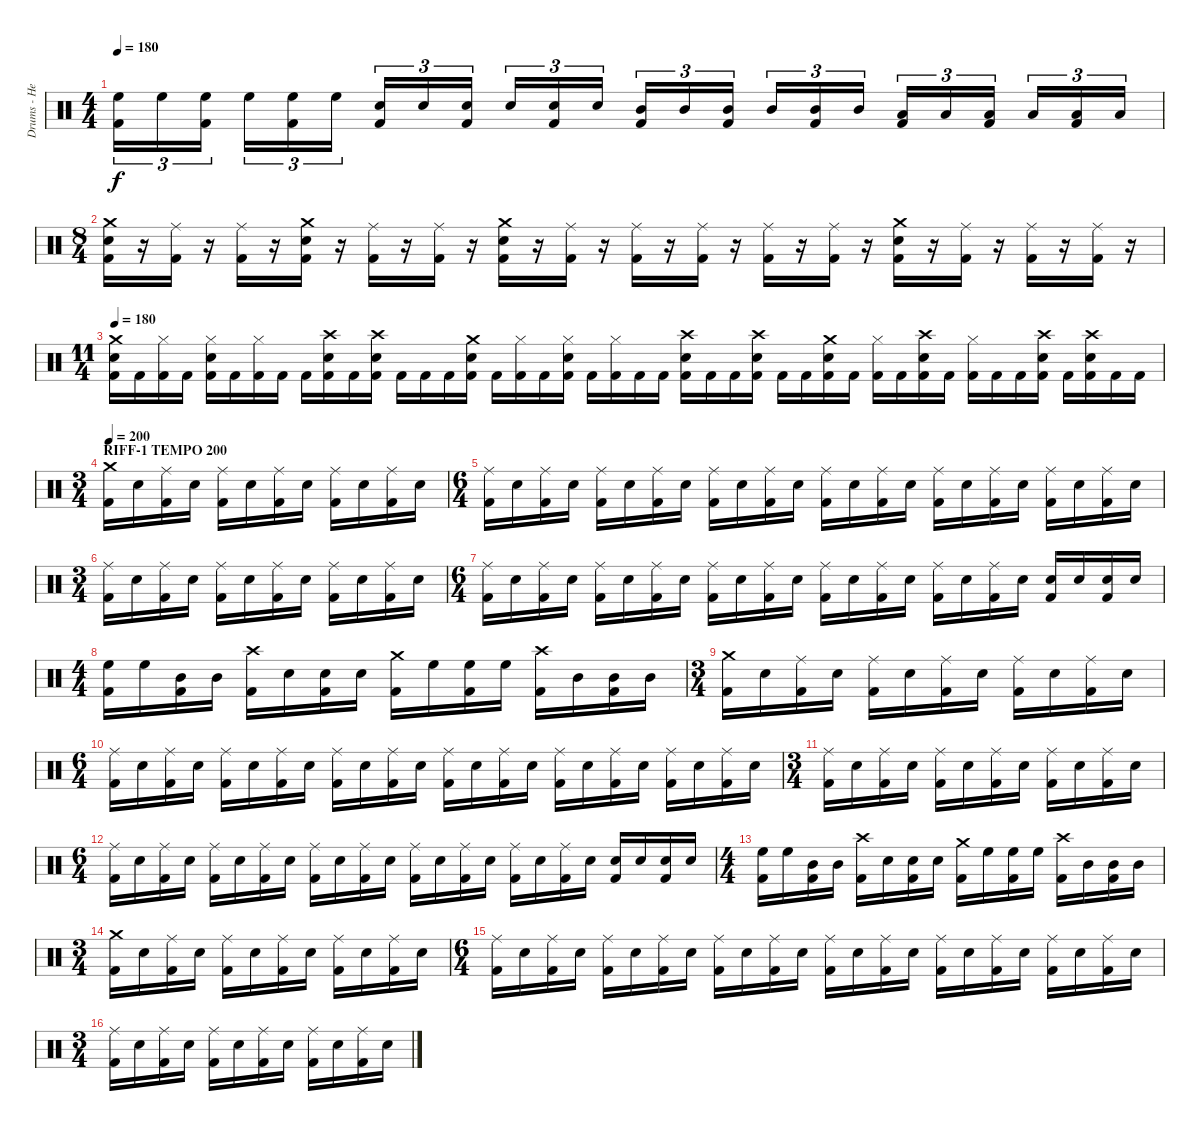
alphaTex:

\track ("Drums - Hellhammer" "Drums - He") {instrument percussion}
\staff {score}
\articulation defaults
\ts (4 4)
\tempo 180
\clef neutral
\ks c
("High Floor Tom (hit)" "Kick (hit) 2").16{tu (3 2) dy f} "High Floor Tom (hit)".16{tu (3 2)} ("High Floor Tom (hit)" "Kick (hit) 2").16{tu (3 2)} "High Floor Tom (hit)".16{tu (3 2)} ("High Floor Tom (hit)" "Kick (hit) 2").16{tu (3 2)} "High Floor Tom (hit)".16{tu (3 2)} ("Electric Snare (hit)" "Kick (hit) 2").16{tu (3 2)} "Electric Snare (hit)".16{tu (3 2)} ("Electric Snare (hit)" "Kick (hit) 2").16{tu (3 2)} "Electric Snare (hit)".16{tu (3 2)} ("Electric Snare (hit)" "Kick (hit) 2").16{tu (3 2)} "Electric Snare (hit)".16{tu (3 2)} ("Mid Tom (hit)" "Kick (hit) 2").16{tu (3 2)} "Mid Tom (hit)".16{tu (3 2)} ("Mid Tom (hit)" "Kick (hit) 2").16{tu (3 2)} "Mid Tom (hit)".16{tu (3 2)} ("Mid Tom (hit)" "Kick (hit) 2").16{tu (3 2)} "Mid Tom (hit)".16{tu (3 2)} ("Low Tom (hit)" "Kick (hit) 2").16{tu (3 2)} "Low Tom (hit)".16{tu (3 2)} ("Low Tom (hit)" "Kick (hit) 2").16{tu (3 2)} "Low Tom (hit)".16{tu (3 2)} ("Low Tom (hit)" "Kick (hit) 2").16{tu (3 2)} "Low Tom (hit)".16{tu (3 2)} |
\ts (8 4)
("Crash medium (hit)" "Electric Snare (hit)" "Kick (hit) 2").16 r.16 ("Ride (middle)" "Kick (hit) 2").16 r.16 ("Ride (middle)" "Kick (hit) 2").16 r.16 ("Crash medium (hit)" "Electric Snare (hit)" "Kick (hit) 2").16 r.16 ("Ride (middle)" "Kick (hit) 2").16 r.16 ("Ride (middle)" "Kick (hit) 2").16 r.16 ("Crash medium (hit)" "Electric Snare (hit)" "Kick (hit) 2").16 r.16 ("Ride (middle)" "Kick (hit) 2").16 r.16 ("Ride (middle)" "Kick (hit) 2").16 r.16 ("Ride (middle)" "Kick (hit) 2").16 r.16 ("Ride (middle)" "Kick (hit) 2").16 r.16 ("Ride (middle)" "Kick (hit) 2").16 r.16 ("Crash medium (hit)" "Electric Snare (hit)" "Kick (hit) 2").16 r.16 ("Ride (middle)" "Kick (hit) 2").16 r.16 ("Ride (middle)" "Kick (hit) 2").16 r.16 ("Ride (middle)" "Kick (hit) 2").16 r.16 |
\ts (11 4)
\tempo 180
("Crash medium (hit)" "Electric Snare (hit)" "Kick (hit) 2").16 "Kick (hit) 2".16 ("Hi-Hat (closed)" "Kick (hit) 2").16 "Kick (hit) 2".16 ("Hi-Hat (closed)" "Electric Snare (hit)" "Kick (hit) 2").16 "Kick (hit) 2".16 ("Hi-Hat (closed)" "Kick (hit) 2").16 "Kick (hit) 2".16 "Kick (hit) 2".16 ("Crash high (hit)" "Electric Snare (hit)" "Kick (hit) 2").16 "Kick (hit) 2".16 ("Crash high (hit)" "Electric Snare (hit)" "Kick (hit) 2").16 "Kick (hit) 2".16 "Kick (hit) 2".16 "Kick (hit) 2".16 ("Crash medium (hit)" "Electric Snare (hit)" "Kick (hit) 2").16 "Kick (hit) 2".16 ("Hi-Hat (closed)" "Kick (hit) 2").16 "Kick (hit) 2".16 ("Hi-Hat (closed)" "Electric Snare (hit)" "Kick (hit) 2").16 "Kick (hit) 2".16 ("Hi-Hat (closed)" "Kick (hit) 2").16 "Kick (hit) 2".16 "Kick (hit) 2".16 ("Crash high (hit)" "Electric Snare (hit)" "Kick (hit) 2").16 "Kick (hit) 2".16 "Kick (hit) 2".16 ("Crash high (hit)" "Electric Snare (hit)" "Kick (hit) 2").16 "Kick (hit) 2".16 "Kick (hit) 2".16 ("Crash medium (hit)" "Electric Snare (hit)" "Kick (hit) 2").16 "Kick (hit) 2".16 ("Hi-Hat (closed)" "Kick (hit) 2").16 "Kick (hit) 2".16 ("Crash high (hit)" "Electric Snare (hit)" "Kick (hit) 2").16 "Kick (hit) 2".16 ("Hi-Hat (closed)" "Kick (hit) 2").16 "Kick (hit) 2".16 "Kick (hit) 2".16 ("Crash high (hit)" "Electric Snare (hit)" "Kick (hit) 2").16 "Kick (hit) 2".16 ("Crash high (hit)" "Electric Snare (hit)" "Kick (hit) 2").16 "Kick (hit) 2".16 "Kick (hit) 2".16 |
\ts (3 4)
\section ("" "RIFF-1 TEMPO 200")
\tempo 200
("Crash medium (hit)" "Kick (hit) 2").16 "Electric Snare (hit)".16 ("Ride (middle)" "Kick (hit) 2").16 "Electric Snare (hit)".16 ("Ride (middle)" "Kick (hit) 2").16 "Electric Snare (hit)".16 ("Ride (middle)" "Kick (hit) 2").16 "Electric Snare (hit)".16 ("Ride (middle)" "Kick (hit) 2").16 "Electric Snare (hit)".16 ("Ride (middle)" "Kick (hit) 2").16 "Electric Snare (hit)".16 |
\ts (6 4)
("Ride (middle)" "Kick (hit) 2").16 "Electric Snare (hit)".16 ("Ride (middle)" "Kick (hit) 2").16 "Electric Snare (hit)".16 ("Ride (middle)" "Kick (hit) 2").16 "Electric Snare (hit)".16 ("Ride (middle)" "Kick (hit) 2").16 "Electric Snare (hit)".16 ("Ride (middle)" "Kick (hit) 2").16 "Electric Snare (hit)".16 ("Ride (middle)" "Kick (hit) 2").16 "Electric Snare (hit)".16 ("Ride (middle)" "Kick (hit) 2").16 "Electric Snare (hit)".16 ("Ride (middle)" "Kick (hit) 2").16 "Electric Snare (hit)".16 ("Ride (middle)" "Kick (hit) 2").16 "Electric Snare (hit)".16 ("Ride (middle)" "Kick (hit) 2").16 "Electric Snare (hit)".16 ("Ride (middle)" "Kick (hit) 2").16 "Electric Snare (hit)".16 ("Ride (middle)" "Kick (hit) 2").16 "Electric Snare (hit)".16 |
\ts (3 4)
("Ride (middle)" "Kick (hit) 2").16 "Electric Snare (hit)".16 ("Ride (middle)" "Kick (hit) 2").16 "Electric Snare (hit)".16 ("Ride (middle)" "Kick (hit) 2").16 "Electric Snare (hit)".16 ("Ride (middle)" "Kick (hit) 2").16 "Electric Snare (hit)".16 ("Ride (middle)" "Kick (hit) 2").16 "Electric Snare (hit)".16 ("Ride (middle)" "Kick (hit) 2").16 "Electric Snare (hit)".16 |
\ts (6 4)
("Ride (middle)" "Kick (hit) 2").16 "Electric Snare (hit)".16 ("Ride (middle)" "Kick (hit) 2").16 "Electric Snare (hit)".16 ("Ride (middle)" "Kick (hit) 2").16 "Electric Snare (hit)".16 ("Ride (middle)" "Kick (hit) 2").16 "Electric Snare (hit)".16 ("Ride (middle)" "Kick (hit) 2").16 "Electric Snare (hit)".16 ("Ride (middle)" "Kick (hit) 2").16 "Electric Snare (hit)".16 ("Ride (middle)" "Kick (hit) 2").16 "Electric Snare (hit)".16 ("Ride (middle)" "Kick (hit) 2").16 "Electric Snare (hit)".16 ("Ride (middle)" "Kick (hit) 2").16 "Electric Snare (hit)".16 ("Ride (middle)" "Kick (hit) 2").16 "Electric Snare (hit)".16 ("Electric Snare (hit)" "Kick (hit) 2").16 "Electric Snare (hit)".16 ("Electric Snare (hit)" "Kick (hit) 2").16 "Electric Snare (hit)".16 |
\ts (4 4)
("High Floor Tom (hit)" "Kick (hit) 2").16 "High Floor Tom (hit)".16 ("Mid Tom (hit)" "Kick (hit) 2").16 "Mid Tom (hit)".16 ("Crash high (hit)" "Kick (hit) 2").16 "Electric Snare (hit)".16 ("Electric Snare (hit)" "Kick (hit) 2").16 "Electric Snare (hit)".16 ("Crash medium (hit)" "Kick (hit) 2").16 "High Floor Tom (hit)".16 ("High Floor Tom (hit)" "Kick (hit) 2").16 "High Floor Tom (hit)".16 ("Crash high (hit)" "Kick (hit) 2").16 "Mid Tom (hit)".16 ("Mid Tom (hit)" "Kick (hit) 2").16 "Mid Tom (hit)".16 |
\ts (3 4)
("Crash medium (hit)" "Kick (hit) 2").16 "Electric Snare (hit)".16 ("Ride (middle)" "Kick (hit) 2").16 "Electric Snare (hit)".16 ("Ride (middle)" "Kick (hit) 2").16 "Electric Snare (hit)".16 ("Ride (middle)" "Kick (hit) 2").16 "Electric Snare (hit)".16 ("Ride (middle)" "Kick (hit) 2").16 "Electric Snare (hit)".16 ("Ride (middle)" "Kick (hit) 2").16 "Electric Snare (hit)".16 |
\ts (6 4)
("Ride (middle)" "Kick (hit) 2").16 "Electric Snare (hit)".16 ("Ride (middle)" "Kick (hit) 2").16 "Electric Snare (hit)".16 ("Ride (middle)" "Kick (hit) 2").16 "Electric Snare (hit)".16 ("Ride (middle)" "Kick (hit) 2").16 "Electric Snare (hit)".16 ("Ride (middle)" "Kick (hit) 2").16 "Electric Snare (hit)".16 ("Ride (middle)" "Kick (hit) 2").16 "Electric Snare (hit)".16 ("Ride (middle)" "Kick (hit) 2").16 "Electric Snare (hit)".16 ("Ride (middle)" "Kick (hit) 2").16 "Electric Snare (hit)".16 ("Ride (middle)" "Kick (hit) 2").16 "Electric Snare (hit)".16 ("Ride (middle)" "Kick (hit) 2").16 "Electric Snare (hit)".16 ("Ride (middle)" "Kick (hit) 2").16 "Electric Snare (hit)".16 ("Ride (middle)" "Kick (hit) 2").16 "Electric Snare (hit)".16 |
\ts (3 4)
("Ride (middle)" "Kick (hit) 2").16 "Electric Snare (hit)".16 ("Ride (middle)" "Kick (hit) 2").16 "Electric Snare (hit)".16 ("Ride (middle)" "Kick (hit) 2").16 "Electric Snare (hit)".16 ("Ride (middle)" "Kick (hit) 2").16 "Electric Snare (hit)".16 ("Ride (middle)" "Kick (hit) 2").16 "Electric Snare (hit)".16 ("Ride (middle)" "Kick (hit) 2").16 "Electric Snare (hit)".16 |
\ts (6 4)
("Ride (middle)" "Kick (hit) 2").16 "Electric Snare (hit)".16 ("Ride (middle)" "Kick (hit) 2").16 "Electric Snare (hit)".16 ("Ride (middle)" "Kick (hit) 2").16 "Electric Snare (hit)".16 ("Ride (middle)" "Kick (hit) 2").16 "Electric Snare (hit)".16 ("Ride (middle)" "Kick (hit) 2").16 "Electric Snare (hit)".16 ("Ride (middle)" "Kick (hit) 2").16 "Electric Snare (hit)".16 ("Ride (middle)" "Kick (hit) 2").16 "Electric Snare (hit)".16 ("Ride (middle)" "Kick (hit) 2").16 "Electric Snare (hit)".16 ("Ride (middle)" "Kick (hit) 2").16 "Electric Snare (hit)".16 ("Ride (middle)" "Kick (hit) 2").16 "Electric Snare (hit)".16 ("Electric Snare (hit)" "Kick (hit) 2").16 "Electric Snare (hit)".16 ("Electric Snare (hit)" "Kick (hit) 2").16 "Electric Snare (hit)".16 |
\ts (4 4)
("High Floor Tom (hit)" "Kick (hit) 2").16 "High Floor Tom (hit)".16 ("Mid Tom (hit)" "Kick (hit) 2").16 "Mid Tom (hit)".16 ("Crash high (hit)" "Kick (hit) 2").16 "Electric Snare (hit)".16 ("Electric Snare (hit)" "Kick (hit) 2").16 "Electric Snare (hit)".16 ("Crash medium (hit)" "Kick (hit) 2").16 "High Floor Tom (hit)".16 ("High Floor Tom (hit)" "Kick (hit) 2").16 "High Floor Tom (hit)".16 ("Crash high (hit)" "Kick (hit) 2").16 "Mid Tom (hit)".16 ("Mid Tom (hit)" "Kick (hit) 2").16 "Mid Tom (hit)".16 |
\ts (3 4)
("Crash medium (hit)" "Kick (hit) 2").16 "Electric Snare (hit)".16 ("Ride (middle)" "Kick (hit) 2").16 "Electric Snare (hit)".16 ("Ride (middle)" "Kick (hit) 2").16 "Electric Snare (hit)".16 ("Ride (middle)" "Kick (hit) 2").16 "Electric Snare (hit)".16 ("Ride (middle)" "Kick (hit) 2").16 "Electric Snare (hit)".16 ("Ride (middle)" "Kick (hit) 2").16 "Electric Snare (hit)".16 |
\ts (6 4)
("Ride (middle)" "Kick (hit) 2").16 "Electric Snare (hit)".16 ("Ride (middle)" "Kick (hit) 2").16 "Electric Snare (hit)".16 ("Ride (middle)" "Kick (hit) 2").16 "Electric Snare (hit)".16 ("Ride (middle)" "Kick (hit) 2").16 "Electric Snare (hit)".16 ("Ride (middle)" "Kick (hit) 2").16 "Electric Snare (hit)".16 ("Ride (middle)" "Kick (hit) 2").16 "Electric Snare (hit)".16 ("Ride (middle)" "Kick (hit) 2").16 "Electric Snare (hit)".16 ("Ride (middle)" "Kick (hit) 2").16 "Electric Snare (hit)".16 ("Ride (middle)" "Kick (hit) 2").16 "Electric Snare (hit)".16 ("Ride (middle)" "Kick (hit) 2").16 "Electric Snare (hit)".16 ("Ride (middle)" "Kick (hit) 2").16 "Electric Snare (hit)".16 ("Ride (middle)" "Kick (hit) 2").16 "Electric Snare (hit)".16 |
\ts (3 4)
("Ride (middle)" "Kick (hit) 2").16 "Electric Snare (hit)".16 ("Ride (middle)" "Kick (hit) 2").16 "Electric Snare (hit)".16 ("Ride (middle)" "Kick (hit) 2").16 "Electric Snare (hit)".16 ("Ride (middle)" "Kick (hit) 2").16 "Electric Snare (hit)".16 ("Ride (middle)" "Kick (hit) 2").16 "Electric Snare (hit)".16 ("Ride (middle)" "Kick (hit) 2").16 "Electric Snare (hit)".16
